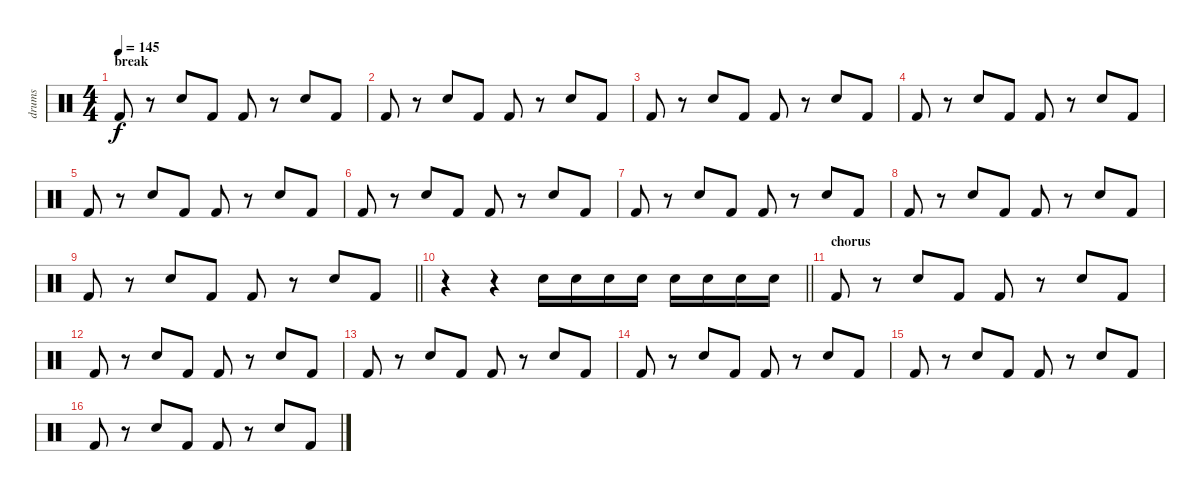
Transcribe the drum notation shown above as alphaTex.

\track ("drums" "drums") {instrument percussion}
\staff {score}
\articulation defaults
\ts (4 4)
\section ("" "break")
\tempo 145
\clef neutral
\ks c "Kick (hit) 2".8{dy f}
r.8 "Snare (hit) 2".8 "Kick (hit) 2".8 "Kick (hit) 2".8 r.8 "Snare (hit) 2".8 "Kick (hit) 2".8 |
"Kick (hit) 2".8 r.8 "Snare (hit) 2".8 "Kick (hit) 2".8 "Kick (hit) 2".8 r.8 "Snare (hit) 2".8 "Kick (hit) 2".8 |
"Kick (hit) 2".8 r.8 "Snare (hit) 2".8 "Kick (hit) 2".8 "Kick (hit) 2".8 r.8 "Snare (hit) 2".8 "Kick (hit) 2".8 |
"Kick (hit) 2".8 r.8 "Snare (hit) 2".8 "Kick (hit) 2".8 "Kick (hit) 2".8 r.8 "Snare (hit) 2".8 "Kick (hit) 2".8 |
"Kick (hit) 2".8 r.8 "Snare (hit) 2".8 "Kick (hit) 2".8 "Kick (hit) 2".8 r.8 "Snare (hit) 2".8 "Kick (hit) 2".8 |
"Kick (hit) 2".8 r.8 "Snare (hit) 2".8 "Kick (hit) 2".8 "Kick (hit) 2".8 r.8 "Snare (hit) 2".8 "Kick (hit) 2".8 |
"Kick (hit) 2".8 r.8 "Snare (hit) 2".8 "Kick (hit) 2".8 "Kick (hit) 2".8 r.8 "Snare (hit) 2".8 "Kick (hit) 2".8 |
"Kick (hit) 2".8 r.8 "Snare (hit) 2".8 "Kick (hit) 2".8 "Kick (hit) 2".8 r.8 "Snare (hit) 2".8 "Kick (hit) 2".8 |
\barLineRight lightlight "Kick (hit) 2".8
r.8 "Snare (hit) 2".8 "Kick (hit) 2".8 "Kick (hit) 2".8 r.8 "Snare (hit) 2".8 "Kick (hit) 2".8 |
\barLineRight lightlight
r.4 r.4 "Snare (hit) 2".16 "Snare (hit) 2".16 "Snare (hit) 2".16 "Snare (hit) 2".16 "Snare (hit) 2".16 "Snare (hit) 2".16 "Snare (hit) 2".16 "Snare (hit) 2".16 |
\section ("" "chorus")
"Kick (hit) 2".8 r.8 "Snare (hit) 2".8 "Kick (hit) 2".8 "Kick (hit) 2".8 r.8 "Snare (hit) 2".8 "Kick (hit) 2".8 |
"Kick (hit) 2".8 r.8 "Snare (hit) 2".8 "Kick (hit) 2".8 "Kick (hit) 2".8 r.8 "Snare (hit) 2".8 "Kick (hit) 2".8 |
"Kick (hit) 2".8 r.8 "Snare (hit) 2".8 "Kick (hit) 2".8 "Kick (hit) 2".8 r.8 "Snare (hit) 2".8 "Kick (hit) 2".8 |
"Kick (hit) 2".8 r.8 "Snare (hit) 2".8 "Kick (hit) 2".8 "Kick (hit) 2".8 r.8 "Snare (hit) 2".8 "Kick (hit) 2".8 |
"Kick (hit) 2".8 r.8 "Snare (hit) 2".8 "Kick (hit) 2".8 "Kick (hit) 2".8 r.8 "Snare (hit) 2".8 "Kick (hit) 2".8 |
"Kick (hit) 2".8 r.8 "Snare (hit) 2".8 "Kick (hit) 2".8 "Kick (hit) 2".8 r.8 "Snare (hit) 2".8 "Kick (hit) 2".8
